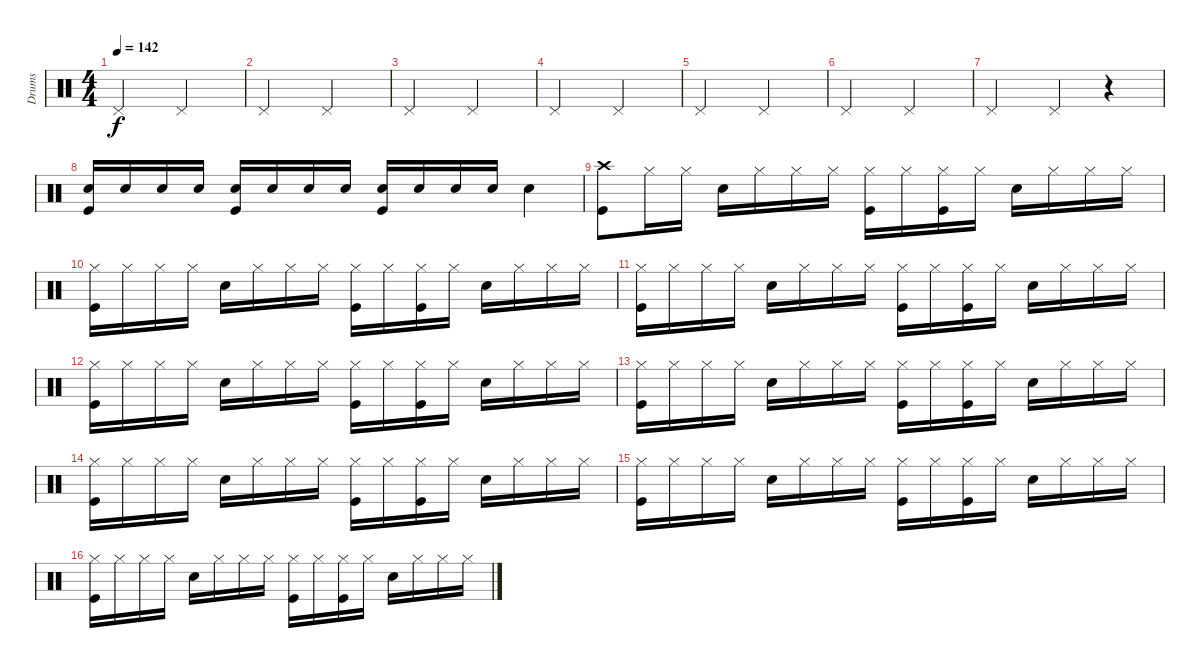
\track ("Drums" "Drums") {instrument percussion}
\staff {score}
\articulation defaults
\ts (4 4)
\tempo 142
\clef neutral
\ks c "Pedal Hi-Hat (hit)".2{dy f volume 5} "Pedal Hi-Hat (hit)".2
|
"Pedal Hi-Hat (hit)".2 "Pedal Hi-Hat (hit)".2 |
"Pedal Hi-Hat (hit)".2 "Pedal Hi-Hat (hit)".2 |
"Pedal Hi-Hat (hit)".2 "Pedal Hi-Hat (hit)".2 |
"Pedal Hi-Hat (hit)".2 "Pedal Hi-Hat (hit)".2 |
"Pedal Hi-Hat (hit)".2 "Pedal Hi-Hat (hit)".2 |
"Pedal Hi-Hat (hit)".2 "Pedal Hi-Hat (hit)".4 r.4{volume 0} |
("Snare (hit) 2" "Kick (hit)").16{volume 10} "Snare (hit) 2".16 "Snare (hit) 2".16 "Snare (hit) 2".16 ("Snare (hit) 2" "Kick (hit)").16 "Snare (hit) 2".16 "Snare (hit) 2".16 "Snare (hit) 2".16 ("Snare (hit) 2" "Kick (hit)").16 "Snare (hit) 2".16 "Snare (hit) 2".16 "Snare (hit) 2".16 "Snare (hit) 2".4 |
("Crash high (hit)" "Kick (hit)").8 "Hi-Hat (closed)".16 "Hi-Hat (closed)".16 "Snare (hit) 2".16 "Hi-Hat (closed)".16 "Hi-Hat (closed)".16 "Hi-Hat (closed)".16 ("Hi-Hat (closed)" "Kick (hit)").16 "Hi-Hat (closed)".16 ("Hi-Hat (closed)" "Kick (hit)").16 "Hi-Hat (closed)".16 "Snare (hit) 2".16 "Hi-Hat (closed)".16 "Hi-Hat (closed)".16 "Hi-Hat (closed)".16 |
("Hi-Hat (closed)" "Kick (hit)").16 "Hi-Hat (closed)".16 "Hi-Hat (closed)".16 "Hi-Hat (closed)".16 "Snare (hit) 2".16 "Hi-Hat (closed)".16 "Hi-Hat (closed)".16 "Hi-Hat (closed)".16 ("Hi-Hat (closed)" "Kick (hit)").16 "Hi-Hat (closed)".16 ("Hi-Hat (closed)" "Kick (hit)").16 "Hi-Hat (closed)".16 "Snare (hit) 2".16 "Hi-Hat (closed)".16 "Hi-Hat (closed)".16 "Hi-Hat (closed)".16 |
("Hi-Hat (closed)" "Kick (hit)").16 "Hi-Hat (closed)".16 "Hi-Hat (closed)".16 "Hi-Hat (closed)".16 "Snare (hit) 2".16 "Hi-Hat (closed)".16 "Hi-Hat (closed)".16 "Hi-Hat (closed)".16 ("Hi-Hat (closed)" "Kick (hit)").16 "Hi-Hat (closed)".16 ("Hi-Hat (closed)" "Kick (hit)").16 "Hi-Hat (closed)".16 "Snare (hit) 2".16 "Hi-Hat (closed)".16 "Hi-Hat (closed)".16 "Hi-Hat (closed)".16 |
("Hi-Hat (closed)" "Kick (hit)").16 "Hi-Hat (closed)".16 "Hi-Hat (closed)".16 "Hi-Hat (closed)".16 "Snare (hit) 2".16 "Hi-Hat (closed)".16 "Hi-Hat (closed)".16 "Hi-Hat (closed)".16 ("Hi-Hat (closed)" "Kick (hit)").16 "Hi-Hat (closed)".16 ("Hi-Hat (closed)" "Kick (hit)").16 "Hi-Hat (closed)".16 "Snare (hit) 2".16 "Hi-Hat (closed)".16 "Hi-Hat (closed)".16 "Hi-Hat (closed)".16 |
("Hi-Hat (closed)" "Kick (hit)").16 "Hi-Hat (closed)".16 "Hi-Hat (closed)".16 "Hi-Hat (closed)".16 "Snare (hit) 2".16 "Hi-Hat (closed)".16 "Hi-Hat (closed)".16 "Hi-Hat (closed)".16 ("Hi-Hat (closed)" "Kick (hit)").16 "Hi-Hat (closed)".16 ("Hi-Hat (closed)" "Kick (hit)").16 "Hi-Hat (closed)".16 "Snare (hit) 2".16 "Hi-Hat (closed)".16 "Hi-Hat (closed)".16 "Hi-Hat (closed)".16 |
("Hi-Hat (closed)" "Kick (hit)").16 "Hi-Hat (closed)".16 "Hi-Hat (closed)".16 "Hi-Hat (closed)".16 "Snare (hit) 2".16 "Hi-Hat (closed)".16 "Hi-Hat (closed)".16 "Hi-Hat (closed)".16 ("Hi-Hat (closed)" "Kick (hit)").16 "Hi-Hat (closed)".16 ("Hi-Hat (closed)" "Kick (hit)").16 "Hi-Hat (closed)".16 "Snare (hit) 2".16 "Hi-Hat (closed)".16 "Hi-Hat (closed)".16 "Hi-Hat (closed)".16 |
("Hi-Hat (closed)" "Kick (hit)").16 "Hi-Hat (closed)".16 "Hi-Hat (closed)".16 "Hi-Hat (closed)".16 "Snare (hit) 2".16 "Hi-Hat (closed)".16 "Hi-Hat (closed)".16 "Hi-Hat (closed)".16 ("Hi-Hat (closed)" "Kick (hit)").16 "Hi-Hat (closed)".16 ("Hi-Hat (closed)" "Kick (hit)").16 "Hi-Hat (closed)".16 "Snare (hit) 2".16 "Hi-Hat (closed)".16 "Hi-Hat (closed)".16 "Hi-Hat (closed)".16 |
("Hi-Hat (closed)" "Kick (hit)").16 "Hi-Hat (closed)".16 "Hi-Hat (closed)".16 "Hi-Hat (closed)".16 "Snare (hit) 2".16 "Hi-Hat (closed)".16 "Hi-Hat (closed)".16 "Hi-Hat (closed)".16 ("Hi-Hat (closed)" "Kick (hit)").16 "Hi-Hat (closed)".16 ("Hi-Hat (closed)" "Kick (hit)").16 "Hi-Hat (closed)".16 "Snare (hit) 2".16 "Hi-Hat (closed)".16 "Hi-Hat (closed)".16 "Hi-Hat (closed)".16
